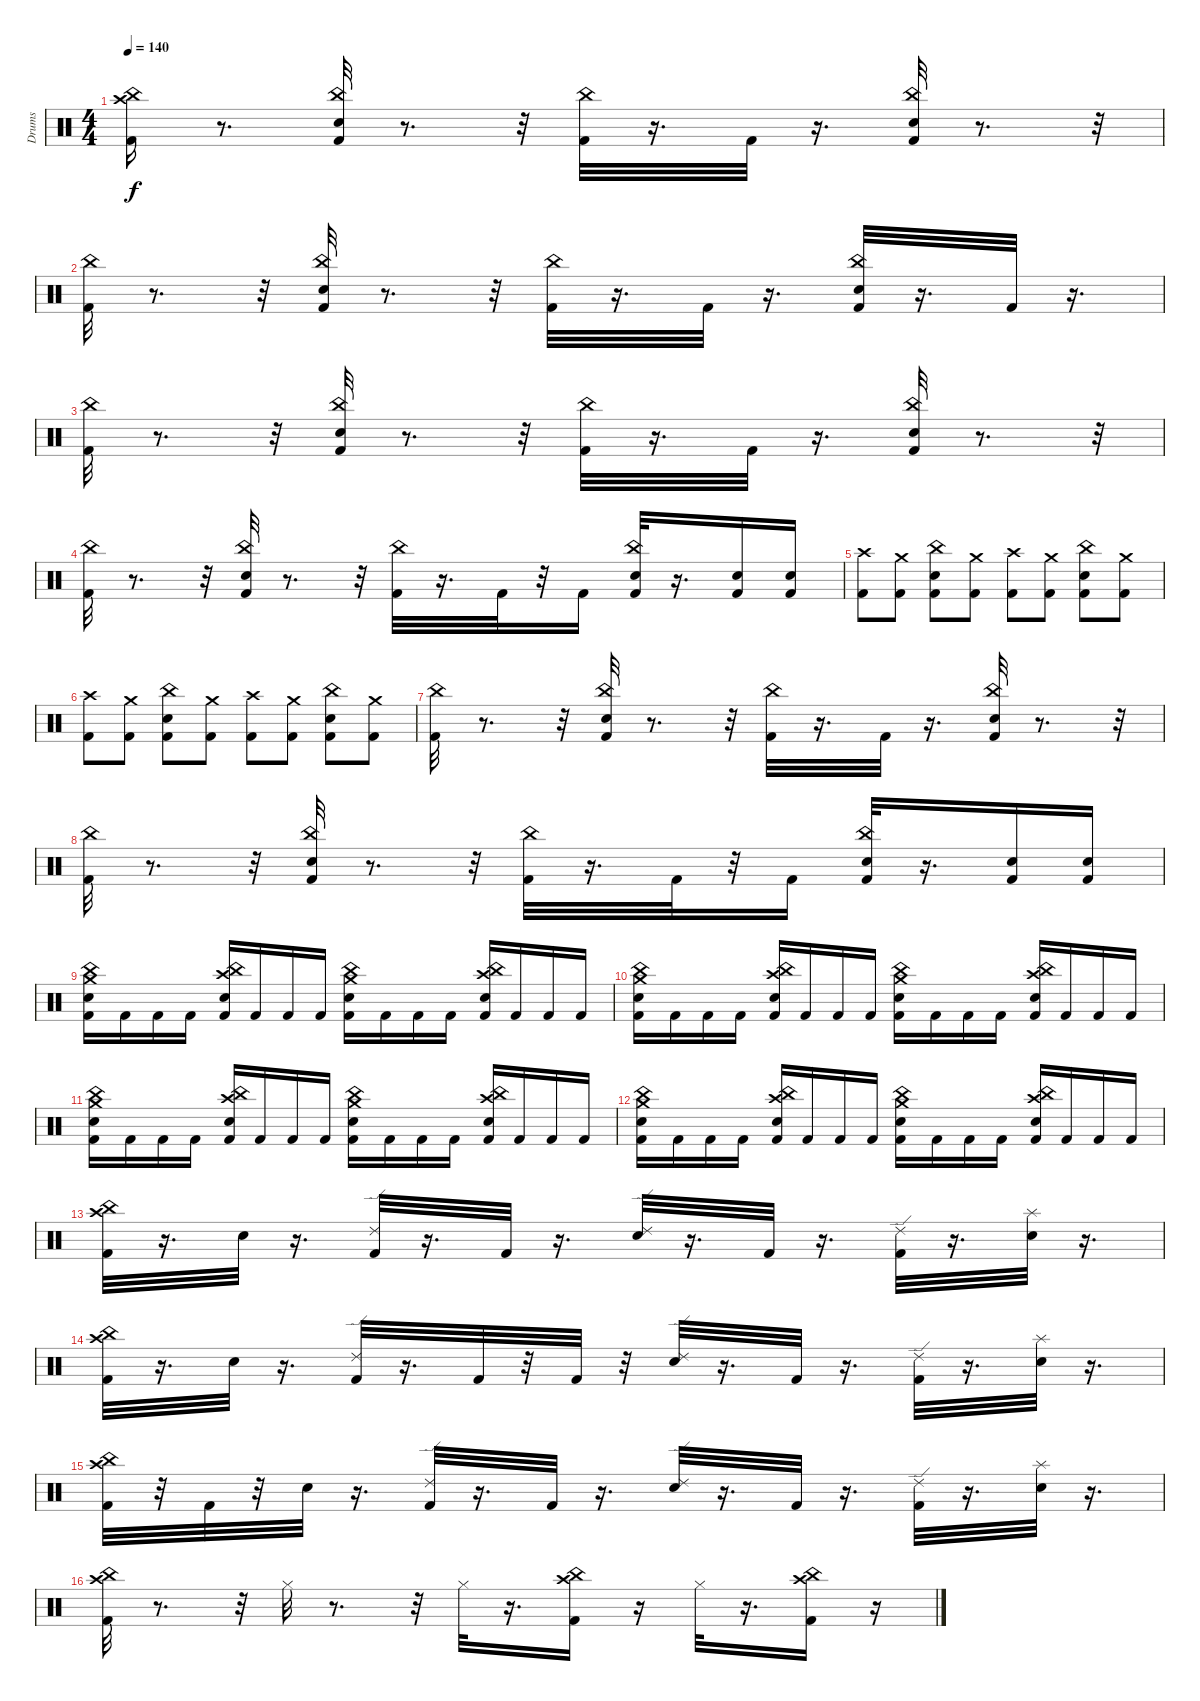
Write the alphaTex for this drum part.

\track ("Drums" "Drums") {instrument percussion}
\staff {score}
\articulation defaults
\ts (4 4)
\tempo 140
\clef neutral
\ks c
("Kick (hit) 2" "Crash high (hit)" "China (hit)").16{dy f} r.8{d} ("Kick (hit) 2" "Snare (hit) 2" "China (hit)").32 r.8{d} r.32 ("Kick (hit) 2" "China (hit)").32 r.16{d} "Kick (hit) 2".32 r.16{d} ("Kick (hit) 2" "Snare (hit) 2" "China (hit)").32 r.8{d} r.32 |
("Kick (hit) 2" "China (hit)").32 r.8{d} r.32 ("Kick (hit) 2" "Snare (hit) 2" "China (hit)").32 r.8{d} r.32 ("Kick (hit) 2" "China (hit)").32 r.16{d} "Kick (hit) 2".32 r.16{d} ("Kick (hit) 2" "Snare (hit) 2" "China (hit)").32 r.16{d} "Kick (hit) 2".32 r.16{d} |
("Kick (hit) 2" "China (hit)").32 r.8{d} r.32 ("Kick (hit) 2" "Snare (hit) 2" "China (hit)").32 r.8{d} r.32 ("Kick (hit) 2" "China (hit)").32 r.16{d} "Kick (hit) 2".32 r.16{d} ("Kick (hit) 2" "Snare (hit) 2" "China (hit)").32 r.8{d} r.32 |
("Kick (hit) 2" "China (hit)").32 r.8{d} r.32 ("Kick (hit) 2" "Snare (hit) 2" "China (hit)").32 r.8{d} r.32 ("Kick (hit) 2" "China (hit)").32 r.16{d} "Kick (hit) 2".32 r.32 "Kick (hit) 2".16 ("Kick (hit) 2" "Snare (hit) 2" "China (hit)").32 r.16{d} ("Kick (hit) 2" "Snare (hit) 2").16 ("Kick (hit) 2" "Snare (hit) 2").16 |
("Kick (hit) 2" "Crash high (hit)").8 ("Kick (hit) 2" "Crash medium (hit)").8 ("Kick (hit) 2" "Snare (hit) 2" "China (hit)").8 ("Kick (hit) 2" "Crash medium (hit)").8 ("Kick (hit) 2" "Crash high (hit)").8 ("Kick (hit) 2" "Crash medium (hit)").8 ("Kick (hit) 2" "Snare (hit) 2" "China (hit)").8 ("Kick (hit) 2" "Crash medium (hit)").8 |
("Kick (hit) 2" "Crash high (hit)").8 ("Kick (hit) 2" "Crash medium (hit)").8 ("Kick (hit) 2" "Snare (hit) 2" "China (hit)").8 ("Kick (hit) 2" "Crash medium (hit)").8 ("Kick (hit) 2" "Crash high (hit)").8 ("Kick (hit) 2" "Crash medium (hit)").8 ("Kick (hit) 2" "Snare (hit) 2" "China (hit)").8 ("Kick (hit) 2" "Crash medium (hit)").8 |
("Kick (hit) 2" "China (hit)").32 r.8{d} r.32 ("Kick (hit) 2" "Snare (hit) 2" "China (hit)").32 r.8{d} r.32 ("Kick (hit) 2" "China (hit)").32 r.16{d} "Kick (hit) 2".32 r.16{d} ("Kick (hit) 2" "Snare (hit) 2" "China (hit)").32 r.8{d} r.32 |
("Kick (hit) 2" "China (hit)").32 r.8{d} r.32 ("Kick (hit) 2" "Snare (hit) 2" "China (hit)").32 r.8{d} r.32 ("Kick (hit) 2" "China (hit)").32 r.16{d} "Kick (hit) 2".32 r.32 "Kick (hit) 2".16 ("Kick (hit) 2" "Snare (hit) 2" "China (hit)").32 r.16{d} ("Kick (hit) 2" "Snare (hit) 2").16 ("Kick (hit) 2" "Snare (hit) 2").16 |
("Kick (hit) 2" "Snare (hit) 2" "China (hit)" "Crash medium (hit)").16 "Kick (hit) 2".16 "Kick (hit) 2".16 "Kick (hit) 2".16 ("Kick (hit) 2" "Snare (hit) 2" "Crash high (hit)" "China (hit)").16 "Kick (hit) 2".16 "Kick (hit) 2".16 "Kick (hit) 2".16 ("Kick (hit) 2" "Snare (hit) 2" "China (hit)" "Crash medium (hit)").16 "Kick (hit) 2".16 "Kick (hit) 2".16 "Kick (hit) 2".16 ("Kick (hit) 2" "Snare (hit) 2" "Crash high (hit)" "China (hit)").16 "Kick (hit) 2".16 "Kick (hit) 2".16 "Kick (hit) 2".16 |
("Kick (hit) 2" "Snare (hit) 2" "China (hit)" "Crash medium (hit)").16 "Kick (hit) 2".16 "Kick (hit) 2".16 "Kick (hit) 2".16 ("Kick (hit) 2" "Snare (hit) 2" "Crash high (hit)" "China (hit)").16 "Kick (hit) 2".16 "Kick (hit) 2".16 "Kick (hit) 2".16 ("Kick (hit) 2" "Snare (hit) 2" "China (hit)" "Crash medium (hit)").16 "Kick (hit) 2".16 "Kick (hit) 2".16 "Kick (hit) 2".16 ("Kick (hit) 2" "Snare (hit) 2" "Crash high (hit)" "China (hit)").16 "Kick (hit) 2".16 "Kick (hit) 2".16 "Kick (hit) 2".16 |
("Kick (hit) 2" "Snare (hit) 2" "China (hit)" "Crash medium (hit)").16 "Kick (hit) 2".16 "Kick (hit) 2".16 "Kick (hit) 2".16 ("Kick (hit) 2" "Snare (hit) 2" "Crash high (hit)" "China (hit)").16 "Kick (hit) 2".16 "Kick (hit) 2".16 "Kick (hit) 2".16 ("Kick (hit) 2" "Snare (hit) 2" "China (hit)" "Crash medium (hit)").16 "Kick (hit) 2".16 "Kick (hit) 2".16 "Kick (hit) 2".16 ("Kick (hit) 2" "Snare (hit) 2" "Crash high (hit)" "China (hit)").16 "Kick (hit) 2".16 "Kick (hit) 2".16 "Kick (hit) 2".16 |
("Kick (hit) 2" "Snare (hit) 2" "China (hit)" "Crash medium (hit)").16 "Kick (hit) 2".16 "Kick (hit) 2".16 "Kick (hit) 2".16 ("Kick (hit) 2" "Snare (hit) 2" "Crash high (hit)" "China (hit)").16 "Kick (hit) 2".16 "Kick (hit) 2".16 "Kick (hit) 2".16 ("Kick (hit) 2" "Snare (hit) 2" "China (hit)" "Crash medium (hit)").16 "Kick (hit) 2".16 "Kick (hit) 2".16 "Kick (hit) 2".16 ("Kick (hit) 2" "Snare (hit) 2" "Crash high (hit)" "China (hit)").16 "Kick (hit) 2".16 "Kick (hit) 2".16 "Kick (hit) 2".16 |
("Kick (hit) 2" "Crash high (hit)" "China (hit)").32 r.16{d} "Snare (hit) 2".32 r.16{d} ("Kick (hit) 2" "Ride (edge) 2").32 r.16{d} "Kick (hit) 2".32 r.16{d} ("Snare (hit) 2" "Ride (edge) 2").32 r.16{d} "Kick (hit) 2".32 r.16{d} ("Kick (hit) 2" "Ride (edge) 2").32 r.16{d} ("Snare (hit) 2" "Splash (hit)").32 r.16{d} |
("Kick (hit) 2" "Crash high (hit)" "China (hit)").32 r.16{d} "Snare (hit) 2".32 r.16{d} ("Kick (hit) 2" "Ride (edge) 2").32 r.16{d} "Kick (hit) 2".32 r.32 "Kick (hit) 2".32 r.32 ("Snare (hit) 2" "Ride (edge) 2").32 r.16{d} "Kick (hit) 2".32 r.16{d} ("Kick (hit) 2" "Ride (edge) 2").32 r.16{d} ("Snare (hit) 2" "Splash (hit)").32 r.16{d} |
("Kick (hit) 2" "Crash high (hit)" "China (hit)").32 r.32 "Kick (hit) 2".32 r.32 "Snare (hit) 2".32 r.16{d} ("Kick (hit) 2" "Ride (edge) 2").32 r.16{d} "Kick (hit) 2".32 r.16{d} ("Snare (hit) 2" "Ride (edge) 2").32 r.16{d} "Kick (hit) 2".32 r.16{d} ("Kick (hit) 2" "Ride (edge) 2").32 r.16{d} ("Snare (hit) 2" "Splash (hit)").32 r.16{d} |
("Kick (hit) 2" "Crash high (hit)" "China (hit)").32 r.8{d} r.32 "Hi-Hat (closed)".32 r.8{d} r.32 "Hi-Hat (closed)".32 r.16{d} ("Kick (hit) 2" "Crash high (hit)" "China (hit)").16 r.16 "Hi-Hat (closed)".32 r.16{d} ("Kick (hit) 2" "Crash high (hit)" "China (hit)").16 r.16
